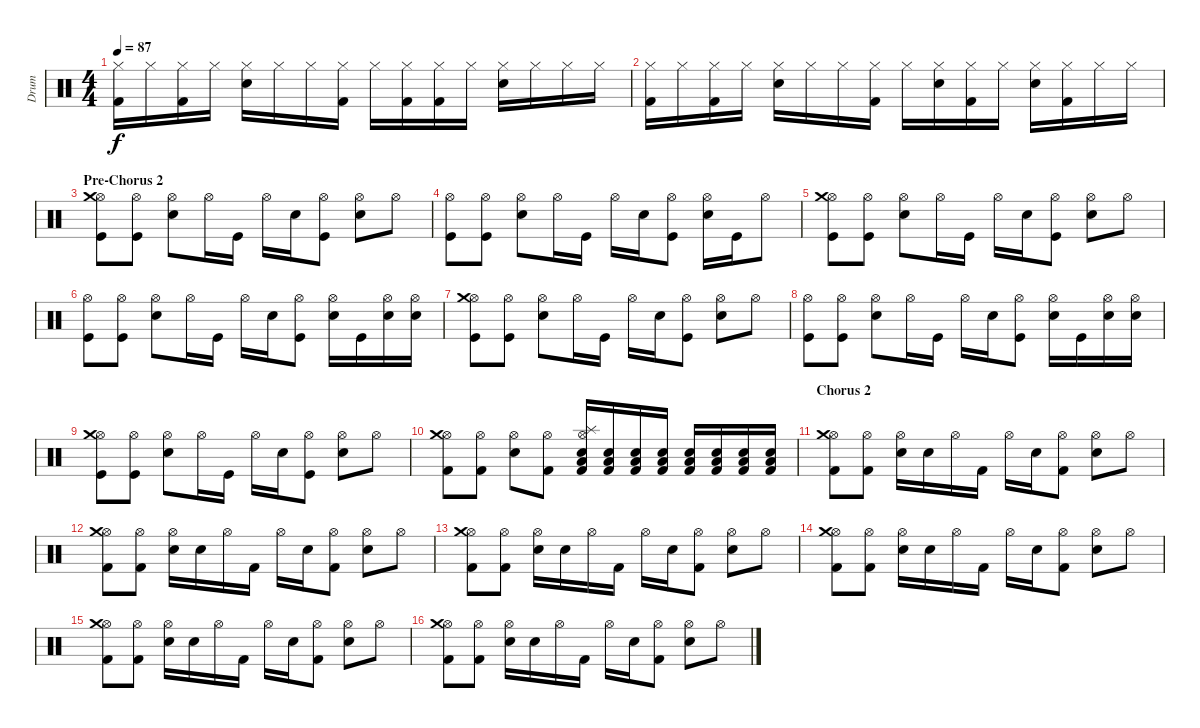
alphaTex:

\track ("Drum" "Drum") {instrument percussion}
\staff {score}
\articulation defaults
\ts (4 4)
\tempo 87
\clef neutral
\ks c
("Hi-Hat (closed)" "Kick (hit) 2").16{dy f} "Hi-Hat (closed)".16 ("Hi-Hat (closed)" "Kick (hit) 2").16 "Hi-Hat (closed)".16 ("Hi-Hat (closed)" "Snare (hit) 2").16 "Hi-Hat (closed)".16 "Hi-Hat (closed)".16 ("Hi-Hat (closed)" "Kick (hit) 2").16 "Hi-Hat (closed)".16 ("Hi-Hat (closed)" "Kick (hit) 2").16 ("Hi-Hat (closed)" "Kick (hit) 2").16 "Hi-Hat (closed)".16 ("Hi-Hat (closed)" "Snare (hit) 2").16 "Hi-Hat (closed)".16 "Hi-Hat (closed)".16 "Hi-Hat (closed)".16 |
("Hi-Hat (closed)" "Kick (hit) 2").16 "Hi-Hat (closed)".16 ("Hi-Hat (closed)" "Kick (hit) 2").16 "Hi-Hat (closed)".16 ("Hi-Hat (closed)" "Snare (hit) 2").16 "Hi-Hat (closed)".16 "Hi-Hat (closed)".16 ("Hi-Hat (closed)" "Kick (hit) 2").16 "Hi-Hat (closed)".16 ("Hi-Hat (closed)" "Snare (hit) 2").16 ("Hi-Hat (closed)" "Kick (hit) 2").16 "Hi-Hat (closed)".16 ("Hi-Hat (closed)" "Snare (hit) 2").16 ("Hi-Hat (closed)" "Kick (hit) 2").16 "Hi-Hat (closed)".16 "Hi-Hat (closed)".16 |
\section ("" "Pre-Chorus 2")
("Hi-Hat (open)" "Crash medium (hit)" "Kick (hit)").8 ("Hi-Hat (open)" "Kick (hit)").8 ("Hi-Hat (open)" "Snare (hit) 2").8 "Hi-Hat (open)".16 "Kick (hit)".16 "Hi-Hat (open)".16 "Snare (hit) 2".16 ("Hi-Hat (open)" "Kick (hit)").8 ("Hi-Hat (open)" "Snare (hit) 2").8 "Hi-Hat (open)".8 |
("Hi-Hat (open)" "Kick (hit)").8 ("Hi-Hat (open)" "Kick (hit)").8 ("Hi-Hat (open)" "Snare (hit) 2").8 "Hi-Hat (open)".16 "Kick (hit)".16 "Hi-Hat (open)".16 "Snare (hit) 2".16 ("Hi-Hat (open)" "Kick (hit)").8 ("Hi-Hat (open)" "Snare (hit) 2").16 "Kick (hit)".16 "Hi-Hat (open)".8 |
("Hi-Hat (open)" "Crash medium (hit)" "Kick (hit)").8 ("Hi-Hat (open)" "Kick (hit)").8 ("Hi-Hat (open)" "Snare (hit) 2").8 "Hi-Hat (open)".16 "Kick (hit)".16 "Hi-Hat (open)".16 "Snare (hit) 2".16 ("Hi-Hat (open)" "Kick (hit)").8 ("Hi-Hat (open)" "Snare (hit) 2").8 "Hi-Hat (open)".8 |
("Hi-Hat (open)" "Kick (hit)").8 ("Hi-Hat (open)" "Kick (hit)").8 ("Hi-Hat (open)" "Snare (hit) 2").8 "Hi-Hat (open)".16 "Kick (hit)".16 "Hi-Hat (open)".16 "Snare (hit) 2".16 ("Hi-Hat (open)" "Kick (hit)").8 ("Hi-Hat (open)" "Snare (hit) 2").16 "Kick (hit)".16 ("Hi-Hat (open)" "Snare (hit) 2").16 ("Hi-Hat (open)" "Snare (hit) 2").16 |
("Hi-Hat (open)" "Crash medium (hit)" "Kick (hit)").8 ("Hi-Hat (open)" "Kick (hit)").8 ("Hi-Hat (open)" "Snare (hit) 2").8 "Hi-Hat (open)".16 "Kick (hit)".16 "Hi-Hat (open)".16 "Snare (hit) 2".16 ("Hi-Hat (open)" "Kick (hit)").8 ("Hi-Hat (open)" "Snare (hit) 2").8 "Hi-Hat (open)".8 |
("Hi-Hat (open)" "Kick (hit)").8 ("Hi-Hat (open)" "Kick (hit)").8 ("Hi-Hat (open)" "Snare (hit) 2").8 "Hi-Hat (open)".16 "Kick (hit)".16 "Hi-Hat (open)".16 "Snare (hit) 2".16 ("Hi-Hat (open)" "Kick (hit)").8 ("Hi-Hat (open)" "Snare (hit) 2").16 "Kick (hit)".16 ("Hi-Hat (open)" "Snare (hit) 2").16 ("Hi-Hat (open)" "Snare (hit) 2").16 |
("Hi-Hat (open)" "Crash medium (hit)" "Kick (hit)").8 ("Hi-Hat (open)" "Kick (hit)").8 ("Hi-Hat (open)" "Snare (hit) 2").8 "Hi-Hat (open)".16 "Kick (hit)".16 "Hi-Hat (open)".16 "Snare (hit) 2".16 ("Hi-Hat (open)" "Kick (hit)").8 ("Hi-Hat (open)" "Snare (hit) 2").8 "Hi-Hat (open)".8 |
("Hi-Hat (open)" "Crash medium (hit)" "Kick (hit) 2").8 ("Hi-Hat (open)" "Kick (hit) 2").8 ("Hi-Hat (open)" "Snare (hit) 2").8 ("Hi-Hat (open)" "Kick (hit) 2").8 ("Hi-Hat (open)" "Splash (hit)" "Snare (hit) 2" "Low Tom (hit)" "Kick (hit) 2").16 ("Snare (hit) 2" "Low Tom (hit)" "Kick (hit) 2").16 ("Snare (hit) 2" "Low Tom (hit)" "Kick (hit) 2").16 ("Snare (hit) 2" "Low Tom (hit)" "Kick (hit) 2").16 ("Snare (hit) 2" "Low Tom (hit)" "Kick (hit) 2").16 ("Snare (hit) 2" "Low Tom (hit)" "Kick (hit) 2").16 ("Snare (hit) 2" "Low Tom (hit)" "Kick (hit) 2").16 ("Snare (hit) 2" "Low Tom (hit)" "Kick (hit) 2").16 |
\section ("" "Chorus 2")
("Hi-Hat (open)" "Crash medium (hit)" "Kick (hit) 2").8 ("Hi-Hat (open)" "Kick (hit) 2").8 ("Hi-Hat (open)" "Snare (hit) 2").16 "Snare (hit) 2".16 "Hi-Hat (open)".16 "Kick (hit) 2".16 "Hi-Hat (open)".16 "Snare (hit) 2".16 ("Hi-Hat (open)" "Kick (hit) 2").8 ("Hi-Hat (open)" "Snare (hit) 2").8 "Hi-Hat (open)".8 |
("Hi-Hat (open)" "Crash medium (hit)" "Kick (hit) 2").8 ("Hi-Hat (open)" "Kick (hit) 2").8 ("Hi-Hat (open)" "Snare (hit) 2").16 "Snare (hit) 2".16 "Hi-Hat (open)".16 "Kick (hit) 2".16 "Hi-Hat (open)".16 "Snare (hit) 2".16 ("Hi-Hat (open)" "Kick (hit) 2").8 ("Hi-Hat (open)" "Snare (hit) 2").8 "Hi-Hat (open)".8 |
("Hi-Hat (open)" "Crash medium (hit)" "Kick (hit) 2").8 ("Hi-Hat (open)" "Kick (hit) 2").8 ("Hi-Hat (open)" "Snare (hit) 2").16 "Snare (hit) 2".16 "Hi-Hat (open)".16 "Kick (hit) 2".16 "Hi-Hat (open)".16 "Snare (hit) 2".16 ("Hi-Hat (open)" "Kick (hit) 2").8 ("Hi-Hat (open)" "Snare (hit) 2").8 "Hi-Hat (open)".8 |
("Hi-Hat (open)" "Crash medium (hit)" "Kick (hit) 2").8 ("Hi-Hat (open)" "Kick (hit) 2").8 ("Hi-Hat (open)" "Snare (hit) 2").16 "Snare (hit) 2".16 "Hi-Hat (open)".16 "Kick (hit) 2".16 "Hi-Hat (open)".16 "Snare (hit) 2".16 ("Hi-Hat (open)" "Kick (hit) 2").8 ("Hi-Hat (open)" "Snare (hit) 2").8 "Hi-Hat (open)".8 |
("Hi-Hat (open)" "Crash medium (hit)" "Kick (hit) 2").8 ("Hi-Hat (open)" "Kick (hit) 2").8 ("Hi-Hat (open)" "Snare (hit) 2").16 "Snare (hit) 2".16 "Hi-Hat (open)".16 "Kick (hit) 2".16 "Hi-Hat (open)".16 "Snare (hit) 2".16 ("Hi-Hat (open)" "Kick (hit) 2").8 ("Hi-Hat (open)" "Snare (hit) 2").8 "Hi-Hat (open)".8 |
("Hi-Hat (open)" "Crash medium (hit)" "Kick (hit) 2").8 ("Hi-Hat (open)" "Kick (hit) 2").8 ("Hi-Hat (open)" "Snare (hit) 2").16 "Snare (hit) 2".16 "Hi-Hat (open)".16 "Kick (hit) 2".16 "Hi-Hat (open)".16 "Snare (hit) 2".16 ("Hi-Hat (open)" "Kick (hit) 2").8 ("Hi-Hat (open)" "Snare (hit) 2").8 "Hi-Hat (open)".8
